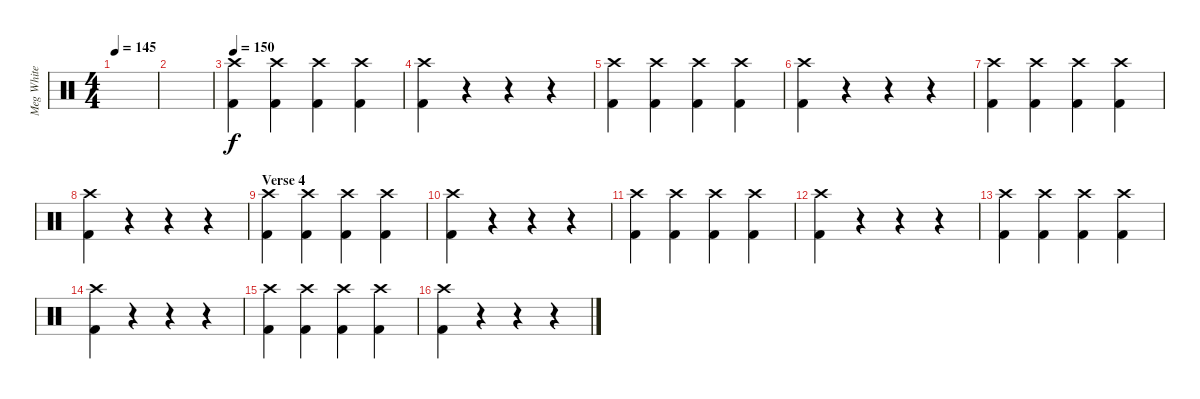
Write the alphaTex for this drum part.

\track ("Meg White - Drums" "Meg White ") {instrument percussion}
\staff {score}
\articulation defaults
\ts (4 4)
\tempo 145
\clef neutral
\ks c
|
|
\tempo 150
("Crash high (hit)" "Kick (hit) 2").4 ("Crash high (hit)" "Kick (hit) 2").4 ("Crash high (hit)" "Kick (hit) 2").4 ("Crash high (hit)" "Kick (hit) 2").4 |
("Crash high (hit)" "Kick (hit) 2").4 r.4 r.4 r.4 |
("Crash high (hit)" "Kick (hit) 2").4 ("Crash high (hit)" "Kick (hit) 2").4 ("Crash high (hit)" "Kick (hit) 2").4 ("Crash high (hit)" "Kick (hit) 2").4 |
("Crash high (hit)" "Kick (hit) 2").4 r.4 r.4 r.4 |
("Crash high (hit)" "Kick (hit) 2").4 ("Crash high (hit)" "Kick (hit) 2").4 ("Crash high (hit)" "Kick (hit) 2").4 ("Crash high (hit)" "Kick (hit) 2").4 |
("Crash high (hit)" "Kick (hit) 2").4 r.4 r.4 r.4 |
\section ("" "Verse 4")
("Crash high (hit)" "Kick (hit) 2").4 ("Crash high (hit)" "Kick (hit) 2").4 ("Crash high (hit)" "Kick (hit) 2").4 ("Crash high (hit)" "Kick (hit) 2").4 |
("Crash high (hit)" "Kick (hit) 2").4 r.4 r.4 r.4 |
("Crash high (hit)" "Kick (hit) 2").4 ("Crash high (hit)" "Kick (hit) 2").4 ("Crash high (hit)" "Kick (hit) 2").4 ("Crash high (hit)" "Kick (hit) 2").4 |
("Crash high (hit)" "Kick (hit) 2").4 r.4 r.4 r.4 |
("Crash high (hit)" "Kick (hit) 2").4 ("Crash high (hit)" "Kick (hit) 2").4 ("Crash high (hit)" "Kick (hit) 2").4 ("Crash high (hit)" "Kick (hit) 2").4 |
("Crash high (hit)" "Kick (hit) 2").4 r.4 r.4 r.4 |
("Crash high (hit)" "Kick (hit) 2").4 ("Crash high (hit)" "Kick (hit) 2").4 ("Crash high (hit)" "Kick (hit) 2").4 ("Crash high (hit)" "Kick (hit) 2").4 |
("Crash high (hit)" "Kick (hit) 2").4 r.4 r.4 r.4
